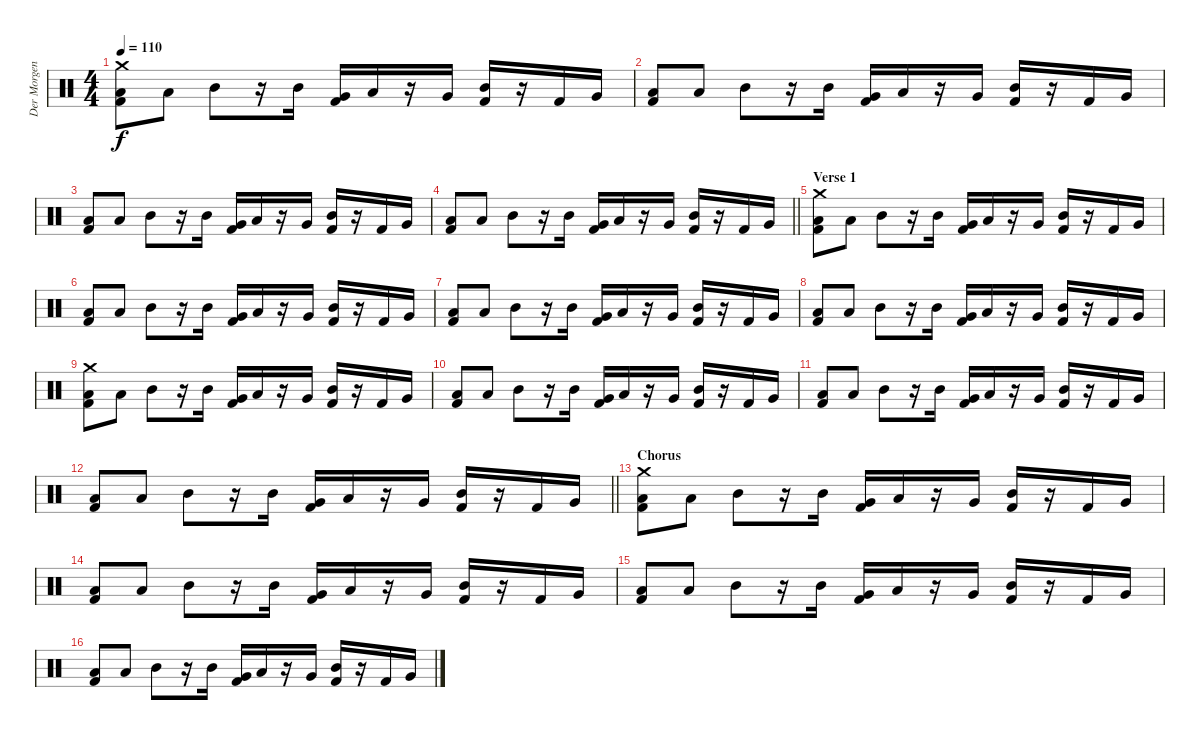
\track ("Der Morgenstern" "Der Morgen") {instrument percussion}
\staff {score}
\articulation defaults
\ts (4 4)
\tempo 110
\clef neutral
\ks c
("Low Floor Tom (hit)" "Kick (hit) 2" "Crash medium (hit)").8{dy f} "Low Floor Tom (hit)".8 "Mid Tom (hit)".8 r.16 "Mid Tom (hit)".16 ("Very Low Tom (hit)" "Kick (hit) 2").16 "Low Tom (hit)".16 r.16 "Very Low Tom (hit)".16 ("Mid Tom (hit)" "Kick (hit) 2").16 r.16 "Kick (hit) 2".16 "Very Low Tom (hit)".16 |
("Low Floor Tom (hit)" "Kick (hit) 2").8 "Low Floor Tom (hit)".8 "Mid Tom (hit)".8 r.16 "Mid Tom (hit)".16 ("Very Low Tom (hit)" "Kick (hit) 2").16 "Low Tom (hit)".16 r.16 "Very Low Tom (hit)".16 ("Mid Tom (hit)" "Kick (hit) 2").16 r.16 "Kick (hit) 2".16 "Very Low Tom (hit)".16 |
("Low Floor Tom (hit)" "Kick (hit) 2").8 "Low Floor Tom (hit)".8 "Mid Tom (hit)".8 r.16 "Mid Tom (hit)".16 ("Very Low Tom (hit)" "Kick (hit) 2").16 "Low Tom (hit)".16 r.16 "Very Low Tom (hit)".16 ("Mid Tom (hit)" "Kick (hit) 2").16 r.16 "Kick (hit) 2".16 "Very Low Tom (hit)".16 |
\barLineRight lightlight
("Low Floor Tom (hit)" "Kick (hit) 2").8 "Low Floor Tom (hit)".8 "Mid Tom (hit)".8 r.16 "Mid Tom (hit)".16 ("Very Low Tom (hit)" "Kick (hit) 2").16 "Low Tom (hit)".16 r.16 "Very Low Tom (hit)".16 ("Mid Tom (hit)" "Kick (hit) 2").16 r.16 "Kick (hit) 2".16 "Very Low Tom (hit)".16 |
\section ("" "Verse 1")
("Low Floor Tom (hit)" "Kick (hit) 2" "Crash medium (hit)").8 "Low Floor Tom (hit)".8 "Mid Tom (hit)".8 r.16 "Mid Tom (hit)".16 ("Very Low Tom (hit)" "Kick (hit) 2").16 "Low Tom (hit)".16 r.16 "Very Low Tom (hit)".16 ("Mid Tom (hit)" "Kick (hit) 2").16 r.16 "Kick (hit) 2".16 "Very Low Tom (hit)".16 |
("Low Floor Tom (hit)" "Kick (hit) 2").8 "Low Floor Tom (hit)".8 "Mid Tom (hit)".8 r.16 "Mid Tom (hit)".16 ("Very Low Tom (hit)" "Kick (hit) 2").16 "Low Tom (hit)".16 r.16 "Very Low Tom (hit)".16 ("Mid Tom (hit)" "Kick (hit) 2").16 r.16 "Kick (hit) 2".16 "Very Low Tom (hit)".16 |
("Low Floor Tom (hit)" "Kick (hit) 2").8 "Low Floor Tom (hit)".8 "Mid Tom (hit)".8 r.16 "Mid Tom (hit)".16 ("Very Low Tom (hit)" "Kick (hit) 2").16 "Low Tom (hit)".16 r.16 "Very Low Tom (hit)".16 ("Mid Tom (hit)" "Kick (hit) 2").16 r.16 "Kick (hit) 2".16 "Very Low Tom (hit)".16 |
("Low Floor Tom (hit)" "Kick (hit) 2").8 "Low Floor Tom (hit)".8 "Mid Tom (hit)".8 r.16 "Mid Tom (hit)".16 ("Very Low Tom (hit)" "Kick (hit) 2").16 "Low Tom (hit)".16 r.16 "Very Low Tom (hit)".16 ("Mid Tom (hit)" "Kick (hit) 2").16 r.16 "Kick (hit) 2".16 "Very Low Tom (hit)".16 |
("Low Floor Tom (hit)" "Kick (hit) 2" "Crash medium (hit)").8 "Low Floor Tom (hit)".8 "Mid Tom (hit)".8 r.16 "Mid Tom (hit)".16 ("Very Low Tom (hit)" "Kick (hit) 2").16 "Low Tom (hit)".16 r.16 "Very Low Tom (hit)".16 ("Mid Tom (hit)" "Kick (hit) 2").16 r.16 "Kick (hit) 2".16 "Very Low Tom (hit)".16 |
("Low Floor Tom (hit)" "Kick (hit) 2").8 "Low Floor Tom (hit)".8 "Mid Tom (hit)".8 r.16 "Mid Tom (hit)".16 ("Very Low Tom (hit)" "Kick (hit) 2").16 "Low Tom (hit)".16 r.16 "Very Low Tom (hit)".16 ("Mid Tom (hit)" "Kick (hit) 2").16 r.16 "Kick (hit) 2".16 "Very Low Tom (hit)".16 |
("Low Floor Tom (hit)" "Kick (hit) 2").8 "Low Floor Tom (hit)".8 "Mid Tom (hit)".8 r.16 "Mid Tom (hit)".16 ("Very Low Tom (hit)" "Kick (hit) 2").16 "Low Tom (hit)".16 r.16 "Very Low Tom (hit)".16 ("Mid Tom (hit)" "Kick (hit) 2").16 r.16 "Kick (hit) 2".16 "Very Low Tom (hit)".16 |
\barLineRight lightlight
("Low Floor Tom (hit)" "Kick (hit) 2").8 "Low Floor Tom (hit)".8 "Mid Tom (hit)".8 r.16 "Mid Tom (hit)".16 ("Very Low Tom (hit)" "Kick (hit) 2").16 "Low Tom (hit)".16 r.16 "Very Low Tom (hit)".16 ("Mid Tom (hit)" "Kick (hit) 2").16 r.16 "Kick (hit) 2".16 "Very Low Tom (hit)".16 |
\section ("" "Chorus")
("Low Floor Tom (hit)" "Kick (hit) 2" "Crash medium (hit)").8 "Low Floor Tom (hit)".8 "Mid Tom (hit)".8 r.16 "Mid Tom (hit)".16 ("Very Low Tom (hit)" "Kick (hit) 2").16 "Low Tom (hit)".16 r.16 "Very Low Tom (hit)".16 ("Mid Tom (hit)" "Kick (hit) 2").16 r.16 "Kick (hit) 2".16 "Very Low Tom (hit)".16 |
("Low Floor Tom (hit)" "Kick (hit) 2").8 "Low Floor Tom (hit)".8 "Mid Tom (hit)".8 r.16 "Mid Tom (hit)".16 ("Very Low Tom (hit)" "Kick (hit) 2").16 "Low Tom (hit)".16 r.16 "Very Low Tom (hit)".16 ("Mid Tom (hit)" "Kick (hit) 2").16 r.16 "Kick (hit) 2".16 "Very Low Tom (hit)".16 |
("Low Floor Tom (hit)" "Kick (hit) 2").8 "Low Floor Tom (hit)".8 "Mid Tom (hit)".8 r.16 "Mid Tom (hit)".16 ("Very Low Tom (hit)" "Kick (hit) 2").16 "Low Tom (hit)".16 r.16 "Very Low Tom (hit)".16 ("Mid Tom (hit)" "Kick (hit) 2").16 r.16 "Kick (hit) 2".16 "Very Low Tom (hit)".16 |
("Low Floor Tom (hit)" "Kick (hit) 2").8 "Low Floor Tom (hit)".8 "Mid Tom (hit)".8 r.16 "Mid Tom (hit)".16 ("Very Low Tom (hit)" "Kick (hit) 2").16 "Low Tom (hit)".16 r.16 "Very Low Tom (hit)".16 ("Mid Tom (hit)" "Kick (hit) 2").16 r.16 "Kick (hit) 2".16 "Very Low Tom (hit)".16
